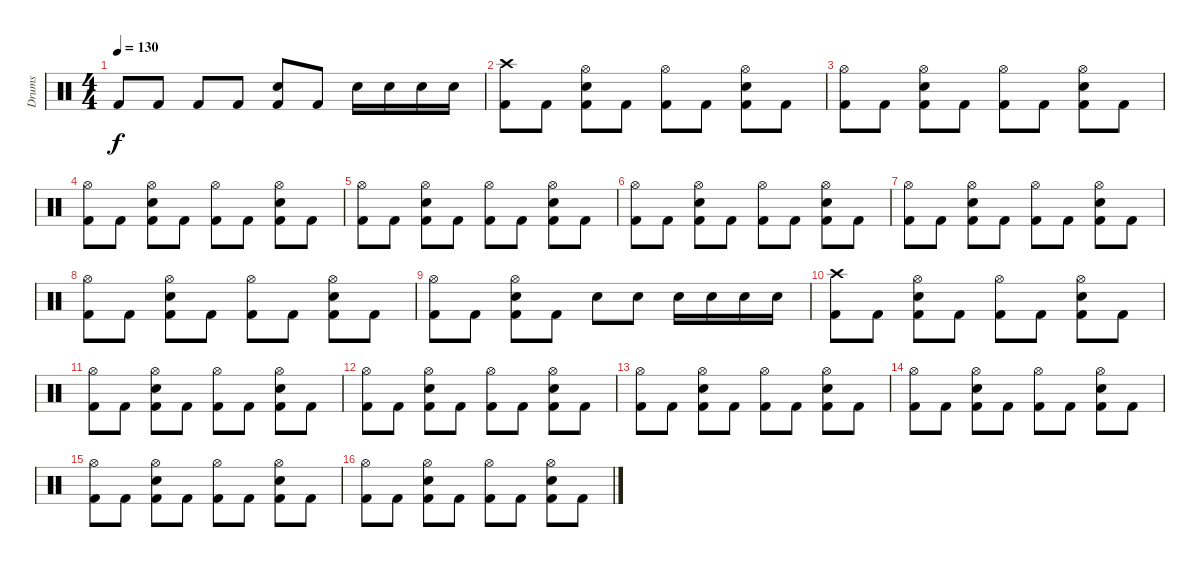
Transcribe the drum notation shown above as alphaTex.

\track ("Drums" "Drums") {instrument percussion}
\staff {score}
\articulation defaults
\ts (4 4)
\tempo 130
\clef neutral
\ks c "Kick (hit) 2".8{dy f} "Kick (hit) 2".8 "Kick (hit) 2".8 "Kick (hit) 2".8
("Electric Snare (hit)" "Kick (hit) 2").8 "Kick (hit) 2".8 "Electric Snare (hit)".16 "Electric Snare (hit)".16 "Electric Snare (hit)".16 "Electric Snare (hit)".16 |
("Crash high (hit)" "Kick (hit) 2").8 "Kick (hit) 2".8 ("Hi-Hat (open)" "Electric Snare (hit)" "Kick (hit) 2").8 "Kick (hit) 2".8 ("Hi-Hat (open)" "Kick (hit) 2").8 "Kick (hit) 2".8 ("Hi-Hat (open)" "Electric Snare (hit)" "Kick (hit) 2").8 "Kick (hit) 2".8 |
("Hi-Hat (open)" "Kick (hit) 2").8 "Kick (hit) 2".8 ("Hi-Hat (open)" "Electric Snare (hit)" "Kick (hit) 2").8 "Kick (hit) 2".8 ("Hi-Hat (open)" "Kick (hit) 2").8 "Kick (hit) 2".8 ("Hi-Hat (open)" "Electric Snare (hit)" "Kick (hit) 2").8 "Kick (hit) 2".8 |
("Hi-Hat (open)" "Kick (hit) 2").8 "Kick (hit) 2".8 ("Hi-Hat (open)" "Electric Snare (hit)" "Kick (hit) 2").8 "Kick (hit) 2".8 ("Hi-Hat (open)" "Kick (hit) 2").8 "Kick (hit) 2".8 ("Hi-Hat (open)" "Electric Snare (hit)" "Kick (hit) 2").8 "Kick (hit) 2".8 |
("Hi-Hat (open)" "Kick (hit) 2").8 "Kick (hit) 2".8 ("Hi-Hat (open)" "Electric Snare (hit)" "Kick (hit) 2").8 "Kick (hit) 2".8 ("Hi-Hat (open)" "Kick (hit) 2").8 "Kick (hit) 2".8 ("Hi-Hat (open)" "Electric Snare (hit)" "Kick (hit) 2").8 "Kick (hit) 2".8 |
("Hi-Hat (open)" "Kick (hit) 2").8 "Kick (hit) 2".8 ("Hi-Hat (open)" "Electric Snare (hit)" "Kick (hit) 2").8 "Kick (hit) 2".8 ("Hi-Hat (open)" "Kick (hit) 2").8 "Kick (hit) 2".8 ("Hi-Hat (open)" "Electric Snare (hit)" "Kick (hit) 2").8 "Kick (hit) 2".8 |
("Hi-Hat (open)" "Kick (hit) 2").8 "Kick (hit) 2".8 ("Hi-Hat (open)" "Electric Snare (hit)" "Kick (hit) 2").8 "Kick (hit) 2".8 ("Hi-Hat (open)" "Kick (hit) 2").8 "Kick (hit) 2".8 ("Hi-Hat (open)" "Electric Snare (hit)" "Kick (hit) 2").8 "Kick (hit) 2".8 |
("Hi-Hat (open)" "Kick (hit) 2").8 "Kick (hit) 2".8 ("Hi-Hat (open)" "Electric Snare (hit)" "Kick (hit) 2").8 "Kick (hit) 2".8 ("Hi-Hat (open)" "Kick (hit) 2").8 "Kick (hit) 2".8 ("Hi-Hat (open)" "Electric Snare (hit)" "Kick (hit) 2").8 "Kick (hit) 2".8 |
("Hi-Hat (open)" "Kick (hit) 2").8 "Kick (hit) 2".8 ("Hi-Hat (open)" "Electric Snare (hit)" "Kick (hit) 2").8 "Kick (hit) 2".8 "Snare (hit) 2".8 "Snare (hit) 2".8 "Electric Snare (hit)".16 "Electric Snare (hit)".16 "Electric Snare (hit)".16 "Electric Snare (hit)".16 |
("Crash high (hit)" "Kick (hit) 2").8 "Kick (hit) 2".8 ("Hi-Hat (open)" "Electric Snare (hit)" "Kick (hit) 2").8 "Kick (hit) 2".8 ("Hi-Hat (open)" "Kick (hit) 2").8 "Kick (hit) 2".8 ("Hi-Hat (open)" "Electric Snare (hit)" "Kick (hit) 2").8 "Kick (hit) 2".8 |
("Hi-Hat (open)" "Kick (hit) 2").8 "Kick (hit) 2".8 ("Hi-Hat (open)" "Electric Snare (hit)" "Kick (hit) 2").8 "Kick (hit) 2".8 ("Hi-Hat (open)" "Kick (hit) 2").8 "Kick (hit) 2".8 ("Hi-Hat (open)" "Electric Snare (hit)" "Kick (hit) 2").8 "Kick (hit) 2".8 |
("Hi-Hat (open)" "Kick (hit) 2").8 "Kick (hit) 2".8 ("Hi-Hat (open)" "Electric Snare (hit)" "Kick (hit) 2").8 "Kick (hit) 2".8 ("Hi-Hat (open)" "Kick (hit) 2").8 "Kick (hit) 2".8 ("Hi-Hat (open)" "Electric Snare (hit)" "Kick (hit) 2").8 "Kick (hit) 2".8 |
("Hi-Hat (open)" "Kick (hit) 2").8 "Kick (hit) 2".8 ("Hi-Hat (open)" "Electric Snare (hit)" "Kick (hit) 2").8 "Kick (hit) 2".8 ("Hi-Hat (open)" "Kick (hit) 2").8 "Kick (hit) 2".8 ("Hi-Hat (open)" "Electric Snare (hit)" "Kick (hit) 2").8 "Kick (hit) 2".8 |
("Hi-Hat (open)" "Kick (hit) 2").8 "Kick (hit) 2".8 ("Hi-Hat (open)" "Electric Snare (hit)" "Kick (hit) 2").8 "Kick (hit) 2".8 ("Hi-Hat (open)" "Kick (hit) 2").8 "Kick (hit) 2".8 ("Hi-Hat (open)" "Electric Snare (hit)" "Kick (hit) 2").8 "Kick (hit) 2".8 |
("Hi-Hat (open)" "Kick (hit) 2").8 "Kick (hit) 2".8 ("Hi-Hat (open)" "Electric Snare (hit)" "Kick (hit) 2").8 "Kick (hit) 2".8 ("Hi-Hat (open)" "Kick (hit) 2").8 "Kick (hit) 2".8 ("Hi-Hat (open)" "Electric Snare (hit)" "Kick (hit) 2").8 "Kick (hit) 2".8 |
("Hi-Hat (open)" "Kick (hit) 2").8 "Kick (hit) 2".8 ("Hi-Hat (open)" "Electric Snare (hit)" "Kick (hit) 2").8 "Kick (hit) 2".8 ("Hi-Hat (open)" "Kick (hit) 2").8 "Kick (hit) 2".8 ("Hi-Hat (open)" "Electric Snare (hit)" "Kick (hit) 2").8 "Kick (hit) 2".8
